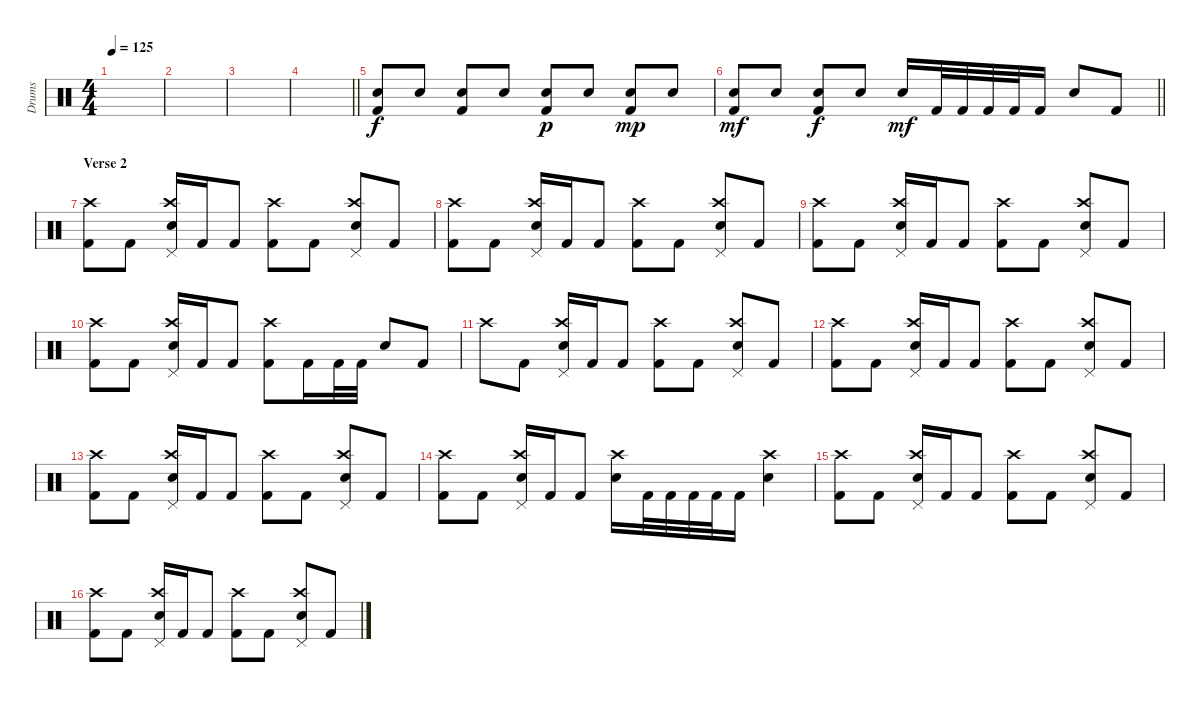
\track ("Drums" "Drums") {instrument percussion}
\staff {score}
\articulation defaults
\ts (4 4)
\tempo 125
\clef neutral
\ks c
|
|
|
\barLineRight lightlight
|
("Snare (hit) 2" "Kick (hit) 2").8 "Snare (hit) 2".8 ("Snare (hit) 2" "Kick (hit) 2").8 "Snare (hit) 2".8 ("Snare (hit) 2" "Kick (hit) 2").8{dy p} "Snare (hit) 2".8 ("Snare (hit) 2" "Kick (hit) 2").8{dy mp} "Snare (hit) 2".8 |
\barLineRight lightlight
("Snare (hit) 2" "Kick (hit) 2").8{dy mf} "Snare (hit) 2".8 ("Snare (hit) 2" "Kick (hit) 2").8{dy f} "Snare (hit) 2".8 "Snare (hit) 2".16{dy mf} "Kick (hit) 2".32 "Kick (hit) 2".32 "Kick (hit) 2".32 "Kick (hit) 2".32 "Kick (hit) 2".16 "Snare (hit) 2".8 "Kick (hit) 2".8 |
\section ("" "Verse 2")
("Crash high (hit)" "Kick (hit) 2").8 "Kick (hit) 2".8 ("Pedal Hi-Hat (hit)" "Crash high (hit)" "Snare (hit) 2").16 "Kick (hit) 2".16 "Kick (hit) 2".8 ("Crash high (hit)" "Kick (hit) 2").8 "Kick (hit) 2".8 ("Pedal Hi-Hat (hit)" "Crash high (hit)" "Snare (hit) 2").8 "Kick (hit) 2".8 |
("Crash high (hit)" "Kick (hit) 2").8 "Kick (hit) 2".8 ("Pedal Hi-Hat (hit)" "Crash high (hit)" "Snare (hit) 2").16 "Kick (hit) 2".16 "Kick (hit) 2".8 ("Crash high (hit)" "Kick (hit) 2").8 "Kick (hit) 2".8 ("Pedal Hi-Hat (hit)" "Crash high (hit)" "Snare (hit) 2").8 "Kick (hit) 2".8 |
("Crash high (hit)" "Kick (hit) 2").8 "Kick (hit) 2".8 ("Pedal Hi-Hat (hit)" "Crash high (hit)" "Snare (hit) 2").16 "Kick (hit) 2".16 "Kick (hit) 2".8 ("Crash high (hit)" "Kick (hit) 2").8 "Kick (hit) 2".8 ("Pedal Hi-Hat (hit)" "Crash high (hit)" "Snare (hit) 2").8 "Kick (hit) 2".8 |
("Crash high (hit)" "Kick (hit) 2").8 "Kick (hit) 2".8 ("Pedal Hi-Hat (hit)" "Crash high (hit)" "Snare (hit) 2").16 "Kick (hit) 2".16 "Kick (hit) 2".8 ("Crash high (hit)" "Kick (hit) 2").8 "Kick (hit) 2".16 "Kick (hit) 2".32 "Kick (hit) 2".32 "Snare (hit) 2".8 "Kick (hit) 2".8 |
"Crash high (hit)".8 "Kick (hit) 2".8 ("Pedal Hi-Hat (hit)" "Crash high (hit)" "Snare (hit) 2").16 "Kick (hit) 2".16 "Kick (hit) 2".8 ("Crash high (hit)" "Kick (hit) 2").8 "Kick (hit) 2".8 ("Pedal Hi-Hat (hit)" "Crash high (hit)" "Snare (hit) 2").8 "Kick (hit) 2".8 |
("Crash high (hit)" "Kick (hit) 2").8 "Kick (hit) 2".8 ("Pedal Hi-Hat (hit)" "Crash high (hit)" "Snare (hit) 2").16 "Kick (hit) 2".16 "Kick (hit) 2".8 ("Crash high (hit)" "Kick (hit) 2").8 "Kick (hit) 2".8 ("Pedal Hi-Hat (hit)" "Crash high (hit)" "Snare (hit) 2").8 "Kick (hit) 2".8 |
("Crash high (hit)" "Kick (hit) 2").8 "Kick (hit) 2".8 ("Pedal Hi-Hat (hit)" "Crash high (hit)" "Snare (hit) 2").16 "Kick (hit) 2".16 "Kick (hit) 2".8 ("Crash high (hit)" "Kick (hit) 2").8 "Kick (hit) 2".8 ("Pedal Hi-Hat (hit)" "Crash high (hit)" "Snare (hit) 2").8 "Kick (hit) 2".8 |
("Crash high (hit)" "Kick (hit) 2").8 "Kick (hit) 2".8 ("Pedal Hi-Hat (hit)" "Crash high (hit)" "Snare (hit) 2").16 "Kick (hit) 2".16 "Kick (hit) 2".8 ("Crash high (hit)" "Snare (hit) 2").16 "Kick (hit) 2".32 "Kick (hit) 2".32 "Kick (hit) 2".32 "Kick (hit) 2".32 "Kick (hit) 2".16 ("Crash high (hit)" "Snare (hit) 2").4 |
("Crash high (hit)" "Kick (hit) 2").8 "Kick (hit) 2".8 ("Pedal Hi-Hat (hit)" "Crash high (hit)" "Snare (hit) 2").16 "Kick (hit) 2".16 "Kick (hit) 2".8 ("Crash high (hit)" "Kick (hit) 2").8 "Kick (hit) 2".8 ("Pedal Hi-Hat (hit)" "Crash high (hit)" "Snare (hit) 2").8 "Kick (hit) 2".8 |
("Crash high (hit)" "Kick (hit) 2").8 "Kick (hit) 2".8 ("Pedal Hi-Hat (hit)" "Crash high (hit)" "Snare (hit) 2").16 "Kick (hit) 2".16 "Kick (hit) 2".8 ("Crash high (hit)" "Kick (hit) 2").8 "Kick (hit) 2".8 ("Pedal Hi-Hat (hit)" "Crash high (hit)" "Snare (hit) 2").8 "Kick (hit) 2".8
